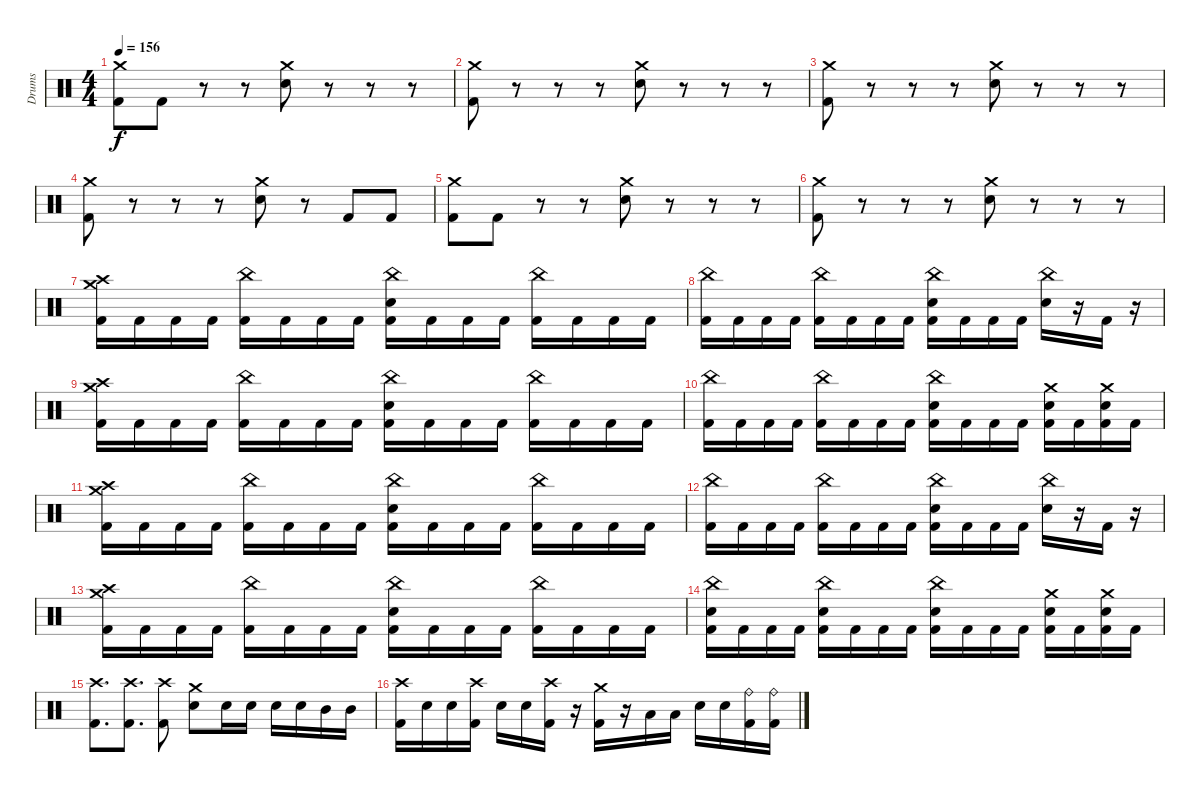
\track ("Drums" "Drums") {instrument percussion}
\staff {score}
\articulation defaults
\ts (4 4)
\tempo 156
\clef neutral
\ks c
("Crash medium (hit)" "Kick (hit) 2").8{dy f} "Kick (hit) 2".8 r.8 r.8 ("Crash medium (hit)" "Snare (hit) 2").8 r.8 r.8 r.8 |
("Crash medium (hit)" "Kick (hit) 2").8 r.8 r.8 r.8 ("Crash medium (hit)" "Snare (hit) 2").8 r.8 r.8 r.8 |
("Crash medium (hit)" "Kick (hit) 2").8 r.8 r.8 r.8 ("Crash medium (hit)" "Snare (hit) 2").8 r.8 r.8 r.8 |
("Crash medium (hit)" "Kick (hit) 2").8 r.8 r.8 r.8 ("Crash medium (hit)" "Snare (hit) 2").8 r.8 "Kick (hit) 2".8 "Kick (hit) 2".8 |
("Crash medium (hit)" "Kick (hit) 2").8 "Kick (hit) 2".8 r.8 r.8 ("Crash medium (hit)" "Snare (hit) 2").8 r.8 r.8 r.8 |
("Crash medium (hit)" "Kick (hit) 2").8 r.8 r.8 r.8 ("Crash medium (hit)" "Snare (hit) 2").8 r.8 r.8 r.8 |
("Crash high (hit)" "Crash medium (hit)" "Kick (hit) 2").16 "Kick (hit) 2".16 "Kick (hit) 2".16 "Kick (hit) 2".16 ("China (hit)" "Kick (hit) 2").16 "Kick (hit) 2".16 "Kick (hit) 2".16 "Kick (hit) 2".16 ("China (hit)" "Snare (hit) 2" "Kick (hit) 2").16 "Kick (hit) 2".16 "Kick (hit) 2".16 "Kick (hit) 2".16 ("China (hit)" "Kick (hit) 2").16 "Kick (hit) 2".16 "Kick (hit) 2".16 "Kick (hit) 2".16 |
("China (hit)" "Kick (hit) 2").16 "Kick (hit) 2".16 "Kick (hit) 2".16 "Kick (hit) 2".16 ("China (hit)" "Kick (hit) 2").16 "Kick (hit) 2".16 "Kick (hit) 2".16 "Kick (hit) 2".16 ("China (hit)" "Snare (hit) 2" "Kick (hit) 2").16 "Kick (hit) 2".16 "Kick (hit) 2".16 "Kick (hit) 2".16 ("China (hit)" "Snare (hit) 2").16 r.16 "Kick (hit) 2".16 r.16 |
("Crash high (hit)" "Crash medium (hit)" "Kick (hit) 2").16 "Kick (hit) 2".16 "Kick (hit) 2".16 "Kick (hit) 2".16 ("China (hit)" "Kick (hit) 2").16 "Kick (hit) 2".16 "Kick (hit) 2".16 "Kick (hit) 2".16 ("China (hit)" "Snare (hit) 2" "Kick (hit) 2").16 "Kick (hit) 2".16 "Kick (hit) 2".16 "Kick (hit) 2".16 ("China (hit)" "Kick (hit) 2").16 "Kick (hit) 2".16 "Kick (hit) 2".16 "Kick (hit) 2".16 |
("China (hit)" "Kick (hit) 2").16 "Kick (hit) 2".16 "Kick (hit) 2".16 "Kick (hit) 2".16 ("China (hit)" "Kick (hit) 2").16 "Kick (hit) 2".16 "Kick (hit) 2".16 "Kick (hit) 2".16 ("China (hit)" "Snare (hit) 2" "Kick (hit) 2").16 "Kick (hit) 2".16 "Kick (hit) 2".16 "Kick (hit) 2".16 ("Crash medium (hit)" "Snare (hit) 2" "Kick (hit) 2").16 "Kick (hit) 2".16 ("Crash medium (hit)" "Snare (hit) 2" "Kick (hit) 2").16 "Kick (hit) 2".16 |
("Crash high (hit)" "Crash medium (hit)" "Kick (hit) 2").16 "Kick (hit) 2".16 "Kick (hit) 2".16 "Kick (hit) 2".16 ("China (hit)" "Kick (hit) 2").16 "Kick (hit) 2".16 "Kick (hit) 2".16 "Kick (hit) 2".16 ("China (hit)" "Snare (hit) 2" "Kick (hit) 2").16 "Kick (hit) 2".16 "Kick (hit) 2".16 "Kick (hit) 2".16 ("China (hit)" "Kick (hit) 2").16 "Kick (hit) 2".16 "Kick (hit) 2".16 "Kick (hit) 2".16 |
("China (hit)" "Kick (hit) 2").16 "Kick (hit) 2".16 "Kick (hit) 2".16 "Kick (hit) 2".16 ("China (hit)" "Kick (hit) 2").16 "Kick (hit) 2".16 "Kick (hit) 2".16 "Kick (hit) 2".16 ("China (hit)" "Snare (hit) 2" "Kick (hit) 2").16 "Kick (hit) 2".16 "Kick (hit) 2".16 "Kick (hit) 2".16 ("China (hit)" "Snare (hit) 2").16 r.16 "Kick (hit) 2".16 r.16 |
("Crash high (hit)" "Crash medium (hit)" "Kick (hit) 2").16 "Kick (hit) 2".16 "Kick (hit) 2".16 "Kick (hit) 2".16 ("China (hit)" "Kick (hit) 2").16 "Kick (hit) 2".16 "Kick (hit) 2".16 "Kick (hit) 2".16 ("China (hit)" "Snare (hit) 2" "Kick (hit) 2").16 "Kick (hit) 2".16 "Kick (hit) 2".16 "Kick (hit) 2".16 ("China (hit)" "Kick (hit) 2").16 "Kick (hit) 2".16 "Kick (hit) 2".16 "Kick (hit) 2".16 |
("China (hit)" "Snare (hit) 2" "Kick (hit) 2").16 "Kick (hit) 2".16 "Kick (hit) 2".16 "Kick (hit) 2".16 ("China (hit)" "Snare (hit) 2" "Kick (hit) 2").16 "Kick (hit) 2".16 "Kick (hit) 2".16 "Kick (hit) 2".16 ("China (hit)" "Snare (hit) 2" "Kick (hit) 2").16 "Kick (hit) 2".16 "Kick (hit) 2".16 "Kick (hit) 2".16 ("Crash medium (hit)" "Snare (hit) 2" "Kick (hit) 2").16 "Kick (hit) 2".16 ("Crash medium (hit)" "Snare (hit) 2" "Kick (hit) 2").16 "Kick (hit) 2".16 |
("Crash high (hit)" "Kick (hit) 2").8{d} ("Crash high (hit)" "Kick (hit) 2").8{d} ("Crash high (hit)" "Kick (hit) 2").8 ("Crash medium (hit)" "Snare (hit) 2").8 "Snare (hit) 2".16 "Snare (hit) 2".16 "Snare (hit) 2".16 "Snare (hit) 2".16 "Mid Tom (hit)".16 "Mid Tom (hit)".16 |
("Crash high (hit)" "Kick (hit) 2").16 "Snare (hit) 2".16 "Snare (hit) 2".16 ("Crash high (hit)" "Kick (hit) 2").16 "Snare (hit) 2".16 "Snare (hit) 2".16 ("Crash high (hit)" "Kick (hit) 2").16 r.16 ("Crash medium (hit)" "Kick (hit) 2").16 r.16 "Low Tom (hit)".16 "Low Tom (hit)".16 "Snare (hit) 2".16 "Snare (hit) 2".16 ("Ride (bell)" "Kick (hit) 2").16 ("Ride (bell)" "Kick (hit) 2").16
